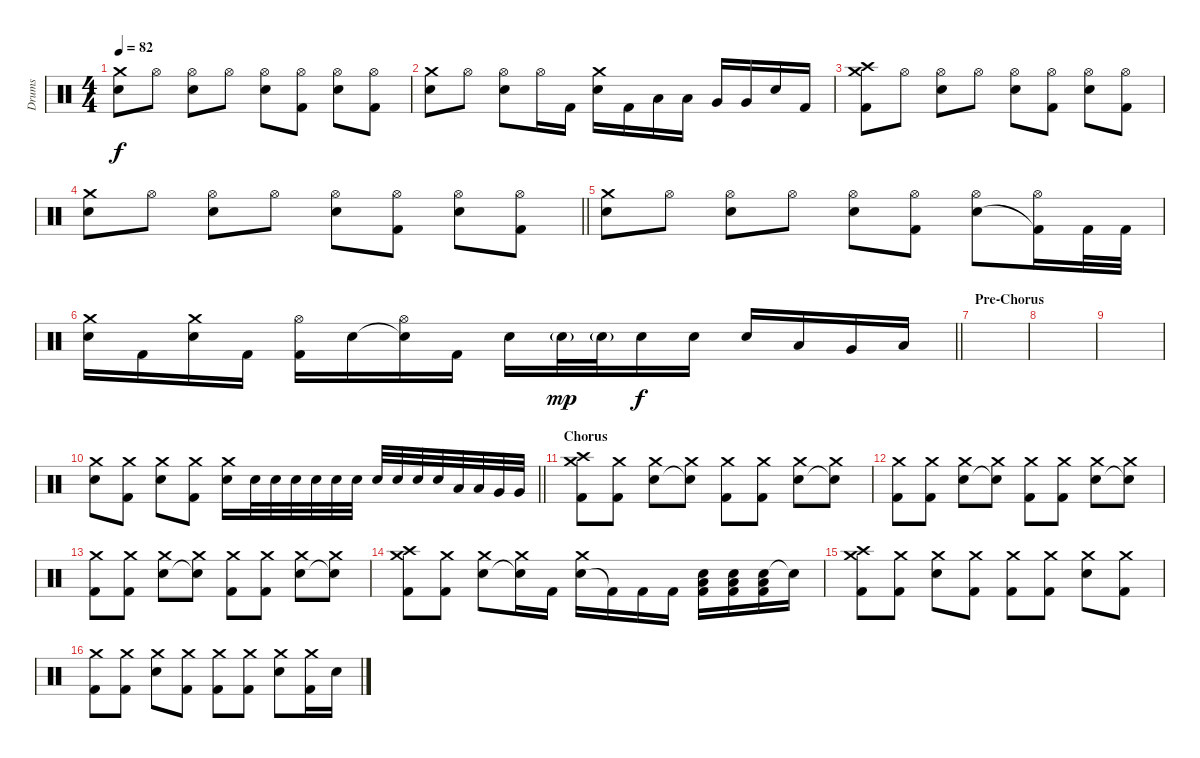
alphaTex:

\track ("Drums" "Drums") {instrument percussion}
\staff {score}
\articulation defaults
\ts (4 4)
\tempo 82
\clef neutral
\ks c
("Electric Snare (hit)" "Crash medium (hit)").8{dy f} "Hi-Hat (open)".8 ("Electric Snare (hit)" "Hi-Hat (open)").8 "Hi-Hat (open)".8 ("Electric Snare (hit)" "Hi-Hat (open)").8 ("Kick (hit) 2" "Hi-Hat (open)").8 ("Electric Snare (hit)" "Hi-Hat (open)").8 ("Kick (hit) 2" "Hi-Hat (open)").8 |
("Electric Snare (hit)" "Crash medium (hit)").8 "Hi-Hat (open)".8 ("Electric Snare (hit)" "Hi-Hat (open)").8 "Hi-Hat (open)".16 "Kick (hit) 2".16 ("Electric Snare (hit)" "Crash medium (hit)").16 "Kick (hit) 2".16 "Low Tom (hit)".16 "Low Tom (hit)".16 "Very Low Tom (hit)".16 "Very Low Tom (hit)".16 "Electric Snare (hit)".16 "Kick (hit) 2".16 |
("Kick (hit) 2" "Crash medium (hit)" "Crash high (hit)").8 "Hi-Hat (open)".8 ("Electric Snare (hit)" "Hi-Hat (open)").8 "Hi-Hat (open)".8 ("Electric Snare (hit)" "Hi-Hat (open)").8 ("Kick (hit) 2" "Hi-Hat (open)").8 ("Electric Snare (hit)" "Hi-Hat (open)").8 ("Kick (hit) 2" "Hi-Hat (open)").8 |
\barLineRight lightlight
("Electric Snare (hit)" "Crash medium (hit)").8 "Hi-Hat (open)".8 ("Electric Snare (hit)" "Hi-Hat (open)").8 "Hi-Hat (open)".8 ("Electric Snare (hit)" "Hi-Hat (open)").8 ("Kick (hit) 2" "Hi-Hat (open)").8 ("Electric Snare (hit)" "Hi-Hat (open)").8 ("Kick (hit) 2" "Hi-Hat (open)").8 |
("Electric Snare (hit)" "Crash medium (hit)").8 "Hi-Hat (open)".8 ("Electric Snare (hit)" "Hi-Hat (open)").8 "Hi-Hat (open)".8 ("Electric Snare (hit)" "Hi-Hat (open)").8 ("Kick (hit) 2" "Hi-Hat (open)").8 ("Electric Snare (hit)" "Hi-Hat (open)").8 ("Kick (hit) 2"{t} "Hi-Hat (open)").16 "Kick (hit) 2".32 "Kick (hit) 2".32 |
\barLineRight lightlight
("Electric Snare (hit)" "Crash medium (hit)").16 "Kick (hit) 2".16 ("Electric Snare (hit)" "Crash medium (hit)").16 "Kick (hit) 2".16 ("Kick (hit) 2" "Hi-Hat (open)").16 "Electric Snare (hit)".16 ("Snare (hit)"{t} "Hi-Hat (open)").16 "Kick (hit) 2".16 "Electric Snare (hit)".16 "Electric Snare (hit)"{g}.32{dy mp} "Electric Snare (hit)"{g}.32 "Electric Snare (hit)".16{dy f} "Electric Snare (hit)".16 "Electric Snare (hit)".16 "Low Tom (hit)".16 "Very Low Tom (hit)".16 "Low Floor Tom (hit)".16 |
\section ("" "Pre-Chorus")
|
|
|
\barLineRight lightlight
("Electric Snare (hit)" "Crash medium (hit)").8 ("Kick (hit) 2" "Crash medium (hit)").8 ("Electric Snare (hit)" "Crash medium (hit)").8 ("Kick (hit) 2" "Crash medium (hit)").8 ("Electric Snare (hit)" "Crash medium (hit)").16 "Electric Snare (hit)".32 "Electric Snare (hit)".32 "Electric Snare (hit)".32 "Electric Snare (hit)".32 "Electric Snare (hit)".32 "Electric Snare (hit)".32 "Electric Snare (hit)".32 "Electric Snare (hit)".32 "Electric Snare (hit)".32 "Electric Snare (hit)".32 "Low Tom (hit)".32 "Low Tom (hit)".32 "Very Low Tom (hit)".32 "Very Low Tom (hit)".32 |
\section ("" "Chorus")
("Kick (hit) 2" "Crash medium (hit)" "Crash high (hit)").8 ("Kick (hit) 2" "Crash medium (hit)").8 ("Electric Snare (hit)" "Crash medium (hit)").8 ("Snare (hit)"{t} "Crash medium (hit)").8 ("Kick (hit) 2" "Crash medium (hit)").8 ("Kick (hit) 2" "Crash medium (hit)").8 ("Electric Snare (hit)" "Crash medium (hit)").8 ("Snare (hit)"{t} "Crash medium (hit)").8 |
("Kick (hit) 2" "Crash medium (hit)").8 ("Kick (hit) 2" "Crash medium (hit)").8 ("Electric Snare (hit)" "Crash medium (hit)").8 ("Snare (hit)"{t} "Crash medium (hit)").8 ("Kick (hit) 2" "Crash medium (hit)").8 ("Kick (hit) 2" "Crash medium (hit)").8 ("Electric Snare (hit)" "Crash medium (hit)").8 ("Snare (hit)"{t} "Crash medium (hit)").8 |
("Kick (hit) 2" "Crash medium (hit)").8 ("Kick (hit) 2" "Crash medium (hit)").8 ("Electric Snare (hit)" "Crash medium (hit)").8 ("Snare (hit)"{t} "Crash medium (hit)").8 ("Kick (hit) 2" "Crash medium (hit)").8 ("Kick (hit) 2" "Crash medium (hit)").8 ("Electric Snare (hit)" "Crash medium (hit)").8 ("Snare (hit)"{t} "Crash medium (hit)").8 |
("Kick (hit) 2" "Crash medium (hit)" "Crash high (hit)").8 ("Kick (hit) 2" "Crash medium (hit)").8 ("Electric Snare (hit)" "Crash medium (hit)").8 ("Snare (hit)"{t} "Crash medium (hit)").16 "Kick (hit) 2".16 ("Electric Snare (hit)" "Crash medium (hit)").16 "Kick (hit) 2"{t}.16 "Kick (hit) 2".16 "Kick (hit) 2".16 ("Electric Snare (hit)" "Low Floor Tom (hit)" "Kick (hit) 2").16 ("Electric Snare (hit)" "Low Floor Tom (hit)" "Kick (hit) 2").16 ("Electric Snare (hit)" "Low Floor Tom (hit)" "Kick (hit) 2").16 "Snare (hit)"{t}.16 |
("Kick (hit) 2" "Crash medium (hit)" "Crash high (hit)").8 ("Kick (hit) 2" "Crash medium (hit)").8 ("Electric Snare (hit)" "Crash medium (hit)").8 ("Kick (hit) 2" "Crash medium (hit)").8 ("Kick (hit) 2" "Crash medium (hit)").8 ("Kick (hit) 2" "Crash medium (hit)").8 ("Electric Snare (hit)" "Crash medium (hit)").8 ("Kick (hit) 2" "Crash medium (hit)").8 |
("Kick (hit) 2" "Crash medium (hit)").8 ("Kick (hit) 2" "Crash medium (hit)").8 ("Electric Snare (hit)" "Crash medium (hit)").8 ("Kick (hit) 2" "Crash medium (hit)").8 ("Kick (hit) 2" "Crash medium (hit)").8 ("Kick (hit) 2" "Crash medium (hit)").8 ("Electric Snare (hit)" "Crash medium (hit)").8 ("Kick (hit) 2" "Crash medium (hit)").16 "Electric Snare (hit)".16
